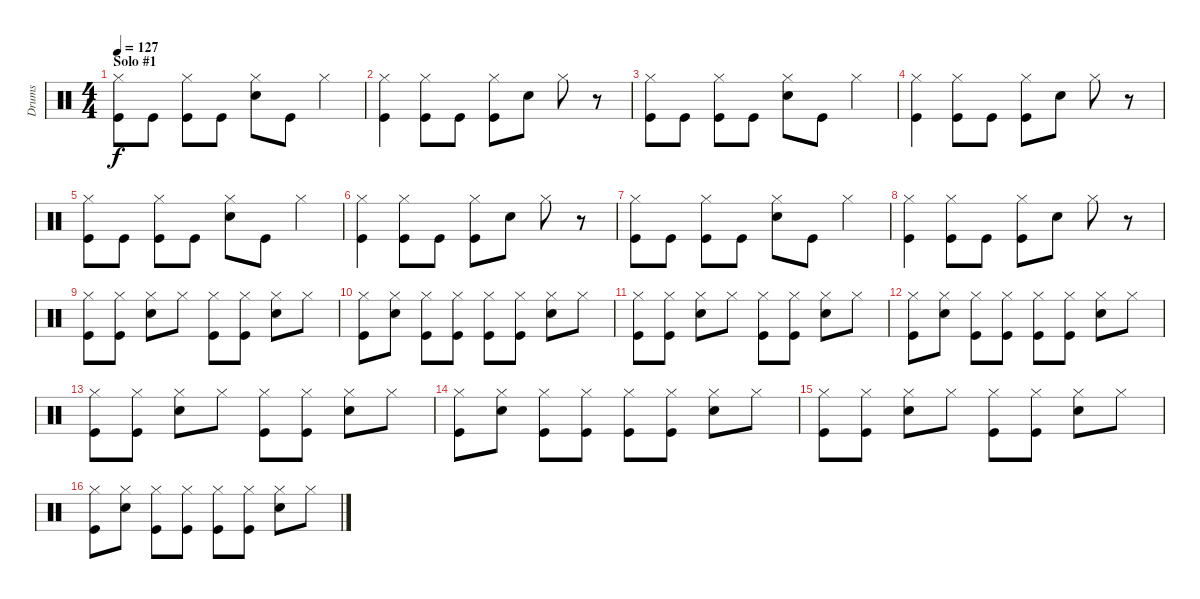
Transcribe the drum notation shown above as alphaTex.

\track ("Drums" "Drums") {instrument percussion}
\staff {score}
\articulation defaults
\ts (4 4)
\section ("" "Solo #1")
\tempo 127
\clef neutral
\ks c
("Hi-Hat (closed)" "Kick (hit)").8{dy f} "Kick (hit)".8 ("Hi-Hat (closed)" "Kick (hit)").8 "Kick (hit)".8 ("Hi-Hat (closed)" "Electric Snare (hit)").8 "Kick (hit)".8 "Hi-Hat (closed)".4 |
("Hi-Hat (closed)" "Kick (hit)").4 ("Hi-Hat (closed)" "Kick (hit)").8 "Kick (hit)".8 ("Hi-Hat (closed)" "Kick (hit)").8 "Electric Snare (hit)".8 "Hi-Hat (closed)".8 r.8 |
("Hi-Hat (closed)" "Kick (hit)").8 "Kick (hit)".8 ("Hi-Hat (closed)" "Kick (hit)").8 "Kick (hit)".8 ("Hi-Hat (closed)" "Electric Snare (hit)").8 "Kick (hit)".8 "Hi-Hat (closed)".4 |
("Hi-Hat (closed)" "Kick (hit)").4 ("Hi-Hat (closed)" "Kick (hit)").8 "Kick (hit)".8 ("Hi-Hat (closed)" "Kick (hit)").8 "Electric Snare (hit)".8 "Hi-Hat (closed)".8 r.8 |
("Hi-Hat (closed)" "Kick (hit)").8 "Kick (hit)".8 ("Hi-Hat (closed)" "Kick (hit)").8 "Kick (hit)".8 ("Hi-Hat (closed)" "Electric Snare (hit)").8 "Kick (hit)".8 "Hi-Hat (closed)".4 |
("Hi-Hat (closed)" "Kick (hit)").4 ("Hi-Hat (closed)" "Kick (hit)").8 "Kick (hit)".8 ("Hi-Hat (closed)" "Kick (hit)").8 "Electric Snare (hit)".8 "Hi-Hat (closed)".8 r.8 |
("Hi-Hat (closed)" "Kick (hit)").8 "Kick (hit)".8 ("Hi-Hat (closed)" "Kick (hit)").8 "Kick (hit)".8 ("Hi-Hat (closed)" "Electric Snare (hit)").8 "Kick (hit)".8 "Hi-Hat (closed)".4 |
("Hi-Hat (closed)" "Kick (hit)").4 ("Hi-Hat (closed)" "Kick (hit)").8 "Kick (hit)".8 ("Hi-Hat (closed)" "Kick (hit)").8 "Electric Snare (hit)".8 "Hi-Hat (closed)".8 r.8 |
("Hi-Hat (closed)" "Kick (hit)").8 ("Hi-Hat (closed)" "Kick (hit)").8 ("Hi-Hat (closed)" "Electric Snare (hit)").8 "Hi-Hat (closed)".8 ("Hi-Hat (closed)" "Kick (hit)").8 ("Hi-Hat (closed)" "Kick (hit)").8 ("Hi-Hat (closed)" "Electric Snare (hit)").8 "Hi-Hat (closed)".8 |
("Hi-Hat (closed)" "Kick (hit)").8 ("Hi-Hat (closed)" "Electric Snare (hit)").8 ("Hi-Hat (closed)" "Kick (hit)").8 ("Hi-Hat (closed)" "Kick (hit)").8 ("Hi-Hat (closed)" "Kick (hit)").8 ("Hi-Hat (closed)" "Kick (hit)").8 ("Hi-Hat (closed)" "Electric Snare (hit)").8 "Hi-Hat (closed)".8 |
("Hi-Hat (closed)" "Kick (hit)").8 ("Hi-Hat (closed)" "Kick (hit)").8 ("Hi-Hat (closed)" "Electric Snare (hit)").8 "Hi-Hat (closed)".8 ("Hi-Hat (closed)" "Kick (hit)").8 ("Hi-Hat (closed)" "Kick (hit)").8 ("Hi-Hat (closed)" "Electric Snare (hit)").8 "Hi-Hat (closed)".8 |
("Hi-Hat (closed)" "Kick (hit)").8 ("Hi-Hat (closed)" "Electric Snare (hit)").8 ("Hi-Hat (closed)" "Kick (hit)").8 ("Hi-Hat (closed)" "Kick (hit)").8 ("Hi-Hat (closed)" "Kick (hit)").8 ("Hi-Hat (closed)" "Kick (hit)").8 ("Hi-Hat (closed)" "Electric Snare (hit)").8 "Hi-Hat (closed)".8 |
("Hi-Hat (closed)" "Kick (hit)").8 ("Hi-Hat (closed)" "Kick (hit)").8 ("Hi-Hat (closed)" "Electric Snare (hit)").8 "Hi-Hat (closed)".8 ("Hi-Hat (closed)" "Kick (hit)").8 ("Hi-Hat (closed)" "Kick (hit)").8 ("Hi-Hat (closed)" "Electric Snare (hit)").8 "Hi-Hat (closed)".8 |
("Hi-Hat (closed)" "Kick (hit)").8 ("Hi-Hat (closed)" "Electric Snare (hit)").8 ("Hi-Hat (closed)" "Kick (hit)").8 ("Hi-Hat (closed)" "Kick (hit)").8 ("Hi-Hat (closed)" "Kick (hit)").8 ("Hi-Hat (closed)" "Kick (hit)").8 ("Hi-Hat (closed)" "Electric Snare (hit)").8 "Hi-Hat (closed)".8 |
("Hi-Hat (closed)" "Kick (hit)").8 ("Hi-Hat (closed)" "Kick (hit)").8 ("Hi-Hat (closed)" "Electric Snare (hit)").8 "Hi-Hat (closed)".8 ("Hi-Hat (closed)" "Kick (hit)").8 ("Hi-Hat (closed)" "Kick (hit)").8 ("Hi-Hat (closed)" "Electric Snare (hit)").8 "Hi-Hat (closed)".8 |
("Hi-Hat (closed)" "Kick (hit)").8 ("Hi-Hat (closed)" "Electric Snare (hit)").8 ("Hi-Hat (closed)" "Kick (hit)").8 ("Hi-Hat (closed)" "Kick (hit)").8 ("Hi-Hat (closed)" "Kick (hit)").8 ("Hi-Hat (closed)" "Kick (hit)").8 ("Hi-Hat (closed)" "Electric Snare (hit)").8 "Hi-Hat (closed)".8
